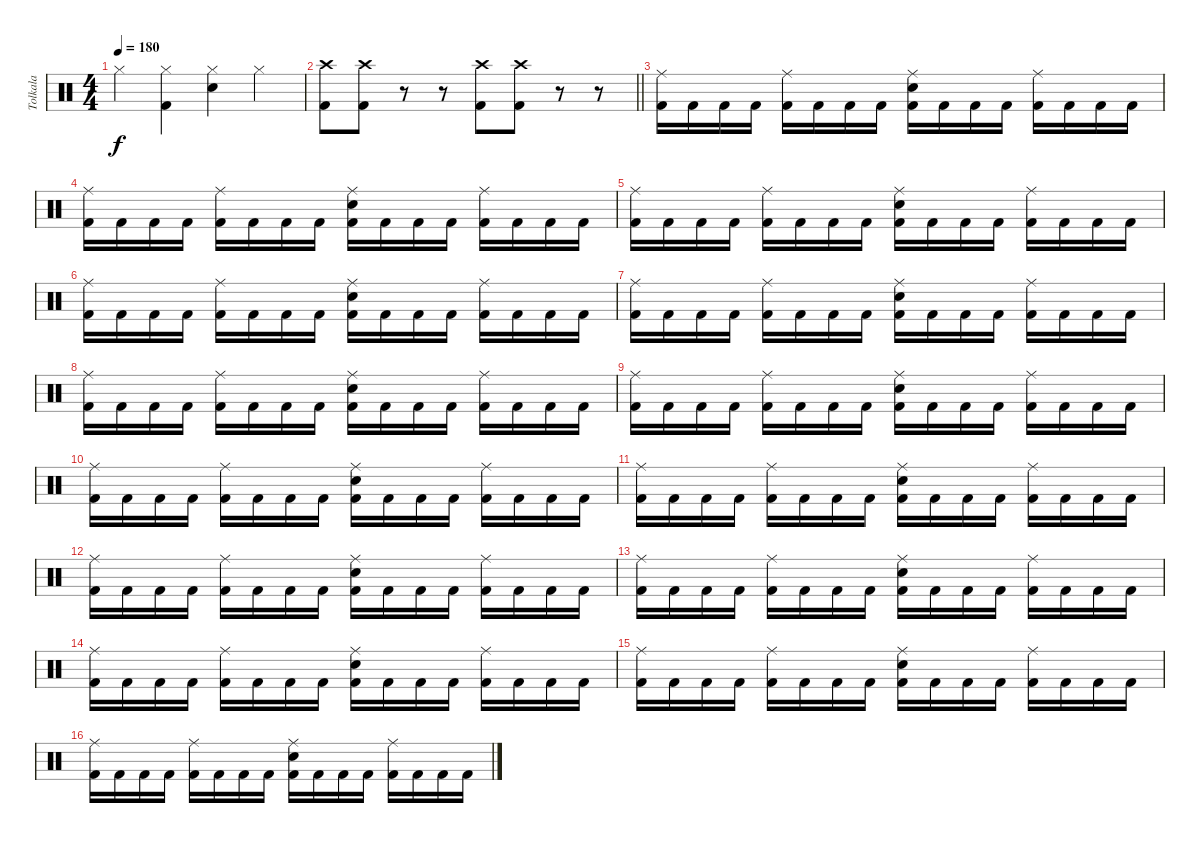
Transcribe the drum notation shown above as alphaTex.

\track ("Tolkala" "Tolkala") {instrument percussion}
\staff {score}
\articulation defaults
\ts (4 4)
\tempo 180
\clef neutral
\ks c "Hi-Hat (closed)".4{dy f}
("Hi-Hat (closed)" "Kick (hit) 2").4 ("Hi-Hat (closed)" "Electric Snare (hit)").4 "Hi-Hat (closed)".4 |
\barLineRight lightlight
("Crash high (hit)" "Kick (hit) 2").8 ("Crash high (hit)" "Kick (hit) 2").8 r.8 r.8 ("Crash high (hit)" "Kick (hit) 2").8 ("Crash high (hit)" "Kick (hit) 2").8 r.8 r.8 |
\section ("" "")
("Ride (middle)" "Kick (hit) 2").16 "Kick (hit) 2".16 "Kick (hit) 2".16 "Kick (hit) 2".16 ("Ride (middle)" "Kick (hit) 2").16 "Kick (hit) 2".16 "Kick (hit) 2".16 "Kick (hit) 2".16 ("Ride (middle)" "Electric Snare (hit)" "Kick (hit) 2").16 "Kick (hit) 2".16 "Kick (hit) 2".16 "Kick (hit) 2".16 ("Ride (middle)" "Kick (hit) 2").16 "Kick (hit) 2".16 "Kick (hit) 2".16 "Kick (hit) 2".16 |
("Ride (middle)" "Kick (hit) 2").16 "Kick (hit) 2".16 "Kick (hit) 2".16 "Kick (hit) 2".16 ("Ride (middle)" "Kick (hit) 2").16 "Kick (hit) 2".16 "Kick (hit) 2".16 "Kick (hit) 2".16 ("Ride (middle)" "Electric Snare (hit)" "Kick (hit) 2").16 "Kick (hit) 2".16 "Kick (hit) 2".16 "Kick (hit) 2".16 ("Ride (middle)" "Kick (hit) 2").16 "Kick (hit) 2".16 "Kick (hit) 2".16 "Kick (hit) 2".16 |
("Ride (middle)" "Kick (hit) 2").16 "Kick (hit) 2".16 "Kick (hit) 2".16 "Kick (hit) 2".16 ("Ride (middle)" "Kick (hit) 2").16 "Kick (hit) 2".16 "Kick (hit) 2".16 "Kick (hit) 2".16 ("Ride (middle)" "Electric Snare (hit)" "Kick (hit) 2").16 "Kick (hit) 2".16 "Kick (hit) 2".16 "Kick (hit) 2".16 ("Ride (middle)" "Kick (hit) 2").16 "Kick (hit) 2".16 "Kick (hit) 2".16 "Kick (hit) 2".16 |
("Ride (middle)" "Kick (hit) 2").16 "Kick (hit) 2".16 "Kick (hit) 2".16 "Kick (hit) 2".16 ("Ride (middle)" "Kick (hit) 2").16 "Kick (hit) 2".16 "Kick (hit) 2".16 "Kick (hit) 2".16 ("Ride (middle)" "Electric Snare (hit)" "Kick (hit) 2").16 "Kick (hit) 2".16 "Kick (hit) 2".16 "Kick (hit) 2".16 ("Ride (middle)" "Kick (hit) 2").16 "Kick (hit) 2".16 "Kick (hit) 2".16 "Kick (hit) 2".16 |
("Ride (middle)" "Kick (hit) 2").16 "Kick (hit) 2".16 "Kick (hit) 2".16 "Kick (hit) 2".16 ("Ride (middle)" "Kick (hit) 2").16 "Kick (hit) 2".16 "Kick (hit) 2".16 "Kick (hit) 2".16 ("Ride (middle)" "Electric Snare (hit)" "Kick (hit) 2").16 "Kick (hit) 2".16 "Kick (hit) 2".16 "Kick (hit) 2".16 ("Ride (middle)" "Kick (hit) 2").16 "Kick (hit) 2".16 "Kick (hit) 2".16 "Kick (hit) 2".16 |
("Ride (middle)" "Kick (hit) 2").16 "Kick (hit) 2".16 "Kick (hit) 2".16 "Kick (hit) 2".16 ("Ride (middle)" "Kick (hit) 2").16 "Kick (hit) 2".16 "Kick (hit) 2".16 "Kick (hit) 2".16 ("Ride (middle)" "Electric Snare (hit)" "Kick (hit) 2").16 "Kick (hit) 2".16 "Kick (hit) 2".16 "Kick (hit) 2".16 ("Ride (middle)" "Kick (hit) 2").16 "Kick (hit) 2".16 "Kick (hit) 2".16 "Kick (hit) 2".16 |
("Ride (middle)" "Kick (hit) 2").16 "Kick (hit) 2".16 "Kick (hit) 2".16 "Kick (hit) 2".16 ("Ride (middle)" "Kick (hit) 2").16 "Kick (hit) 2".16 "Kick (hit) 2".16 "Kick (hit) 2".16 ("Ride (middle)" "Electric Snare (hit)" "Kick (hit) 2").16 "Kick (hit) 2".16 "Kick (hit) 2".16 "Kick (hit) 2".16 ("Ride (middle)" "Kick (hit) 2").16 "Kick (hit) 2".16 "Kick (hit) 2".16 "Kick (hit) 2".16 |
("Ride (middle)" "Kick (hit) 2").16 "Kick (hit) 2".16 "Kick (hit) 2".16 "Kick (hit) 2".16 ("Ride (middle)" "Kick (hit) 2").16 "Kick (hit) 2".16 "Kick (hit) 2".16 "Kick (hit) 2".16 ("Ride (middle)" "Electric Snare (hit)" "Kick (hit) 2").16 "Kick (hit) 2".16 "Kick (hit) 2".16 "Kick (hit) 2".16 ("Ride (middle)" "Kick (hit) 2").16 "Kick (hit) 2".16 "Kick (hit) 2".16 "Kick (hit) 2".16 |
("Ride (middle)" "Kick (hit) 2").16 "Kick (hit) 2".16 "Kick (hit) 2".16 "Kick (hit) 2".16 ("Ride (middle)" "Kick (hit) 2").16 "Kick (hit) 2".16 "Kick (hit) 2".16 "Kick (hit) 2".16 ("Ride (middle)" "Electric Snare (hit)" "Kick (hit) 2").16 "Kick (hit) 2".16 "Kick (hit) 2".16 "Kick (hit) 2".16 ("Ride (middle)" "Kick (hit) 2").16 "Kick (hit) 2".16 "Kick (hit) 2".16 "Kick (hit) 2".16 |
("Ride (middle)" "Kick (hit) 2").16 "Kick (hit) 2".16 "Kick (hit) 2".16 "Kick (hit) 2".16 ("Ride (middle)" "Kick (hit) 2").16 "Kick (hit) 2".16 "Kick (hit) 2".16 "Kick (hit) 2".16 ("Ride (middle)" "Electric Snare (hit)" "Kick (hit) 2").16 "Kick (hit) 2".16 "Kick (hit) 2".16 "Kick (hit) 2".16 ("Ride (middle)" "Kick (hit) 2").16 "Kick (hit) 2".16 "Kick (hit) 2".16 "Kick (hit) 2".16 |
("Ride (middle)" "Kick (hit) 2").16 "Kick (hit) 2".16 "Kick (hit) 2".16 "Kick (hit) 2".16 ("Ride (middle)" "Kick (hit) 2").16 "Kick (hit) 2".16 "Kick (hit) 2".16 "Kick (hit) 2".16 ("Ride (middle)" "Electric Snare (hit)" "Kick (hit) 2").16 "Kick (hit) 2".16 "Kick (hit) 2".16 "Kick (hit) 2".16 ("Ride (middle)" "Kick (hit) 2").16 "Kick (hit) 2".16 "Kick (hit) 2".16 "Kick (hit) 2".16 |
("Ride (middle)" "Kick (hit) 2").16 "Kick (hit) 2".16 "Kick (hit) 2".16 "Kick (hit) 2".16 ("Ride (middle)" "Kick (hit) 2").16 "Kick (hit) 2".16 "Kick (hit) 2".16 "Kick (hit) 2".16 ("Ride (middle)" "Electric Snare (hit)" "Kick (hit) 2").16 "Kick (hit) 2".16 "Kick (hit) 2".16 "Kick (hit) 2".16 ("Ride (middle)" "Kick (hit) 2").16 "Kick (hit) 2".16 "Kick (hit) 2".16 "Kick (hit) 2".16 |
("Ride (middle)" "Kick (hit) 2").16 "Kick (hit) 2".16 "Kick (hit) 2".16 "Kick (hit) 2".16 ("Ride (middle)" "Kick (hit) 2").16 "Kick (hit) 2".16 "Kick (hit) 2".16 "Kick (hit) 2".16 ("Ride (middle)" "Electric Snare (hit)" "Kick (hit) 2").16 "Kick (hit) 2".16 "Kick (hit) 2".16 "Kick (hit) 2".16 ("Ride (middle)" "Kick (hit) 2").16 "Kick (hit) 2".16 "Kick (hit) 2".16 "Kick (hit) 2".16 |
("Ride (middle)" "Kick (hit) 2").16 "Kick (hit) 2".16 "Kick (hit) 2".16 "Kick (hit) 2".16 ("Ride (middle)" "Kick (hit) 2").16 "Kick (hit) 2".16 "Kick (hit) 2".16 "Kick (hit) 2".16 ("Ride (middle)" "Electric Snare (hit)" "Kick (hit) 2").16 "Kick (hit) 2".16 "Kick (hit) 2".16 "Kick (hit) 2".16 ("Ride (middle)" "Kick (hit) 2").16 "Kick (hit) 2".16 "Kick (hit) 2".16 "Kick (hit) 2".16
